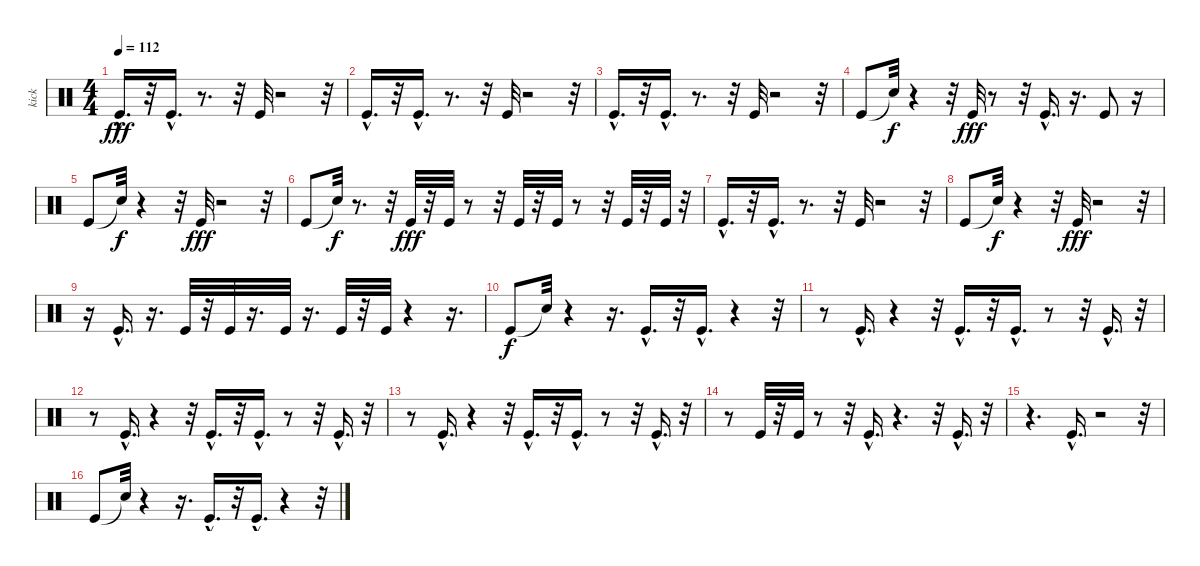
\track ("kick" "kick") {instrument percussion}
\staff {score}
\articulation defaults
\ts (4 4)
\tempo 112
\clef neutral
\ks c "Kick (hit)"{hac}.16{d dy fff}
r.32 "Kick (hit)"{hac}.16{d} r.8{d} r.32 "Kick (hit)".32 r.2 r.32 |
"Kick (hit)"{hac}.16{d} r.32 "Kick (hit)"{hac}.16{d} r.8{d} r.32 "Kick (hit)".32 r.2 r.32 |
"Kick (hit)"{hac}.16{d} r.32 "Kick (hit)"{hac}.16{d} r.8{d} r.32 "Kick (hit)".32 r.2 r.32 |
"Kick (hit)".8 "Snare (hit)"{t}.32{dy f} r.4 r.32 "Kick (hit)".32{dy fff} r.8 r.32 "Kick (hit)"{hac}.16{d} r.16{d} "Kick (hit)".8 r.16 |
"Kick (hit)".8 "Snare (hit)"{t}.32{dy f} r.4 r.32 "Kick (hit)".32{dy fff} r.2 r.32 |
"Kick (hit)".8 "Snare (hit)"{t}.32{dy f} r.8{d} r.32 "Kick (hit)".32{dy fff} r.32 "Kick (hit)".32 r.8 r.32 "Kick (hit)".32 r.32 "Kick (hit)".32 r.8 r.32 "Kick (hit)".32 r.32 "Kick (hit)".32 r.32 |
"Kick (hit)"{hac}.16{d} r.32 "Kick (hit)"{hac}.16{d} r.8{d} r.32 "Kick (hit)".32 r.2 r.32 |
"Kick (hit)".8 "Snare (hit)"{t}.32{dy f} r.4 r.32 "Kick (hit)".32{dy fff} r.2 r.32 |
r.16 "Kick (hit)"{hac}.16{d} r.16{d} "Kick (hit)".32 r.32 "Kick (hit)".32 r.16{d} "Kick (hit)".32 r.16{d} "Kick (hit)".32 r.32 "Kick (hit)".32 r.4 r.16{d} |
"Kick (hit)".8{dy f} "Snare (hit)"{t}.32 r.4 r.16{d} "Kick (hit)"{hac}.16{d} r.32 "Kick (hit)"{hac}.16{d} r.4 r.32 |
r.8 "Kick (hit)"{hac}.16{d} r.4 r.32 "Kick (hit)"{hac}.16{d} r.32 "Kick (hit)"{hac}.16{d} r.8 r.32 "Kick (hit)"{hac}.16{d} r.32 |
r.8 "Kick (hit)"{hac}.16{d} r.4 r.32 "Kick (hit)"{hac}.16{d} r.32 "Kick (hit)"{hac}.16{d} r.8 r.32 "Kick (hit)"{hac}.16{d} r.32 |
r.8 "Kick (hit)"{hac}.16{d} r.4 r.32 "Kick (hit)"{hac}.16{d} r.32 "Kick (hit)"{hac}.16{d} r.8 r.32 "Kick (hit)"{hac}.16{d} r.32 |
r.8 "Kick (hit)".32 r.32 "Kick (hit)".32 r.8 r.32 "Kick (hit)"{hac}.16{d} r.4{d} r.32 "Kick (hit)"{hac}.16{d} r.32 |
r.4{d} "Kick (hit)"{hac}.16{d} r.2 r.32 |
"Kick (hit)".8 "Snare (hit)"{t}.32 r.4 r.16{d} "Kick (hit)"{hac}.16{d} r.32 "Kick (hit)"{hac}.16{d} r.4 r.32
